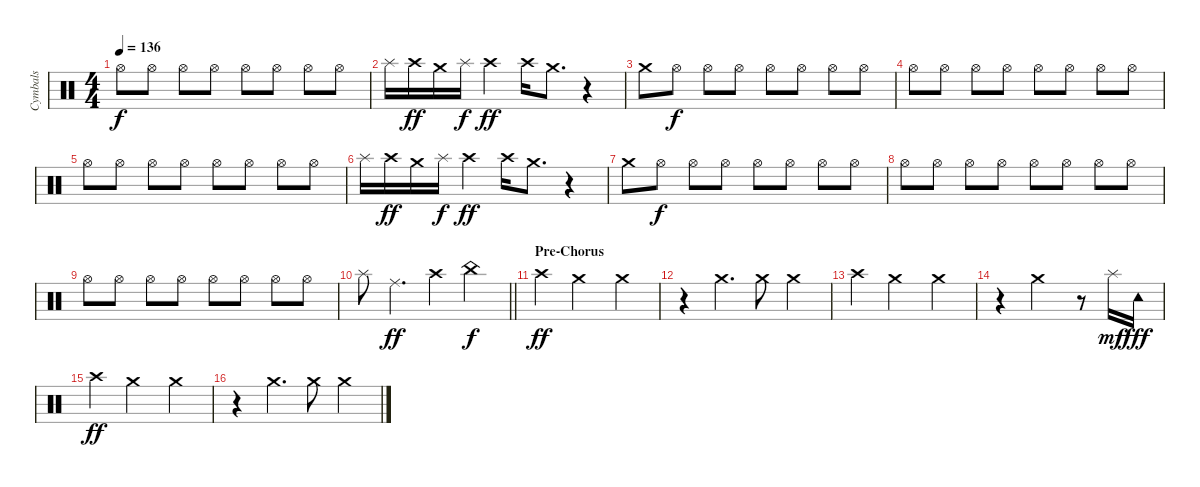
\track ("Cymbals" "Cymbals") {instrument percussion}
\staff {score}
\articulation defaults
\ts (4 4)
\tempo 136
\clef neutral
\ks c "Hi-Hat (open)".8{dy f} "Hi-Hat (open)".8 "Hi-Hat (open)".8 "Hi-Hat (open)".8 "Hi-Hat (open)".8 "Hi-Hat (open)".8 "Hi-Hat (open)".8 "Hi-Hat (open)".8
|
"Splash (hit)".16 "Crash high (hit)".16{dy ff} "Crash medium (hit)".16 "Splash (hit)".16{dy f} "Crash high (hit)".4{dy ff} "Crash high (hit)".16 "Crash medium (hit)".8{d} r.4 |
"Crash medium (hit)".8 "Hi-Hat (open)".8{dy f} "Hi-Hat (open)".8 "Hi-Hat (open)".8 "Hi-Hat (open)".8 "Hi-Hat (open)".8 "Hi-Hat (open)".8 "Hi-Hat (open)".8 |
"Hi-Hat (open)".8 "Hi-Hat (open)".8 "Hi-Hat (open)".8 "Hi-Hat (open)".8 "Hi-Hat (open)".8 "Hi-Hat (open)".8 "Hi-Hat (open)".8 "Hi-Hat (open)".8 |
"Hi-Hat (open)".8 "Hi-Hat (open)".8 "Hi-Hat (open)".8 "Hi-Hat (open)".8 "Hi-Hat (open)".8 "Hi-Hat (open)".8 "Hi-Hat (open)".8 "Hi-Hat (open)".8 |
"Splash (hit)".16 "Crash high (hit)".16{dy ff} "Crash medium (hit)".16 "Splash (hit)".16{dy f} "Crash high (hit)".4{dy ff} "Crash high (hit)".16 "Crash medium (hit)".8{d} r.4 |
"Crash medium (hit)".8 "Hi-Hat (open)".8{dy f} "Hi-Hat (open)".8 "Hi-Hat (open)".8 "Hi-Hat (open)".8 "Hi-Hat (open)".8 "Hi-Hat (open)".8 "Hi-Hat (open)".8 |
"Hi-Hat (open)".8 "Hi-Hat (open)".8 "Hi-Hat (open)".8 "Hi-Hat (open)".8 "Hi-Hat (open)".8 "Hi-Hat (open)".8 "Hi-Hat (open)".8 "Hi-Hat (open)".8 |
"Hi-Hat (open)".8 "Hi-Hat (open)".8 "Hi-Hat (open)".8 "Hi-Hat (open)".8 "Hi-Hat (open)".8 "Hi-Hat (open)".8 "Hi-Hat (open)".8 "Hi-Hat (open)".8 |
\barLineRight lightlight "Splash (hit)".8 "Ride (middle)".4{d dy ff} "Crash high (hit)".4 "China (hit)".4{dy f}
|
\section ("" "Pre-Chorus")
"Crash high (hit)".4{dy ff} "Crash medium (hit)".2 "Crash medium (hit)".4 |
r.4 "Crash medium (hit)".4{d} "Crash medium (hit)".8 "Crash medium (hit)".4 |
"Crash high (hit)".4 "Crash medium (hit)".2 "Crash medium (hit)".4 |
r.4 "Crash medium (hit)".2 r.8 "Splash (hit)".16{dy mf} "Tambourine (hit)".16{dy fff} |
"Crash high (hit)".4{dy ff} "Crash medium (hit)".2 "Crash medium (hit)".4 |
r.4 "Crash medium (hit)".4{d} "Crash medium (hit)".8 "Crash medium (hit)".4
